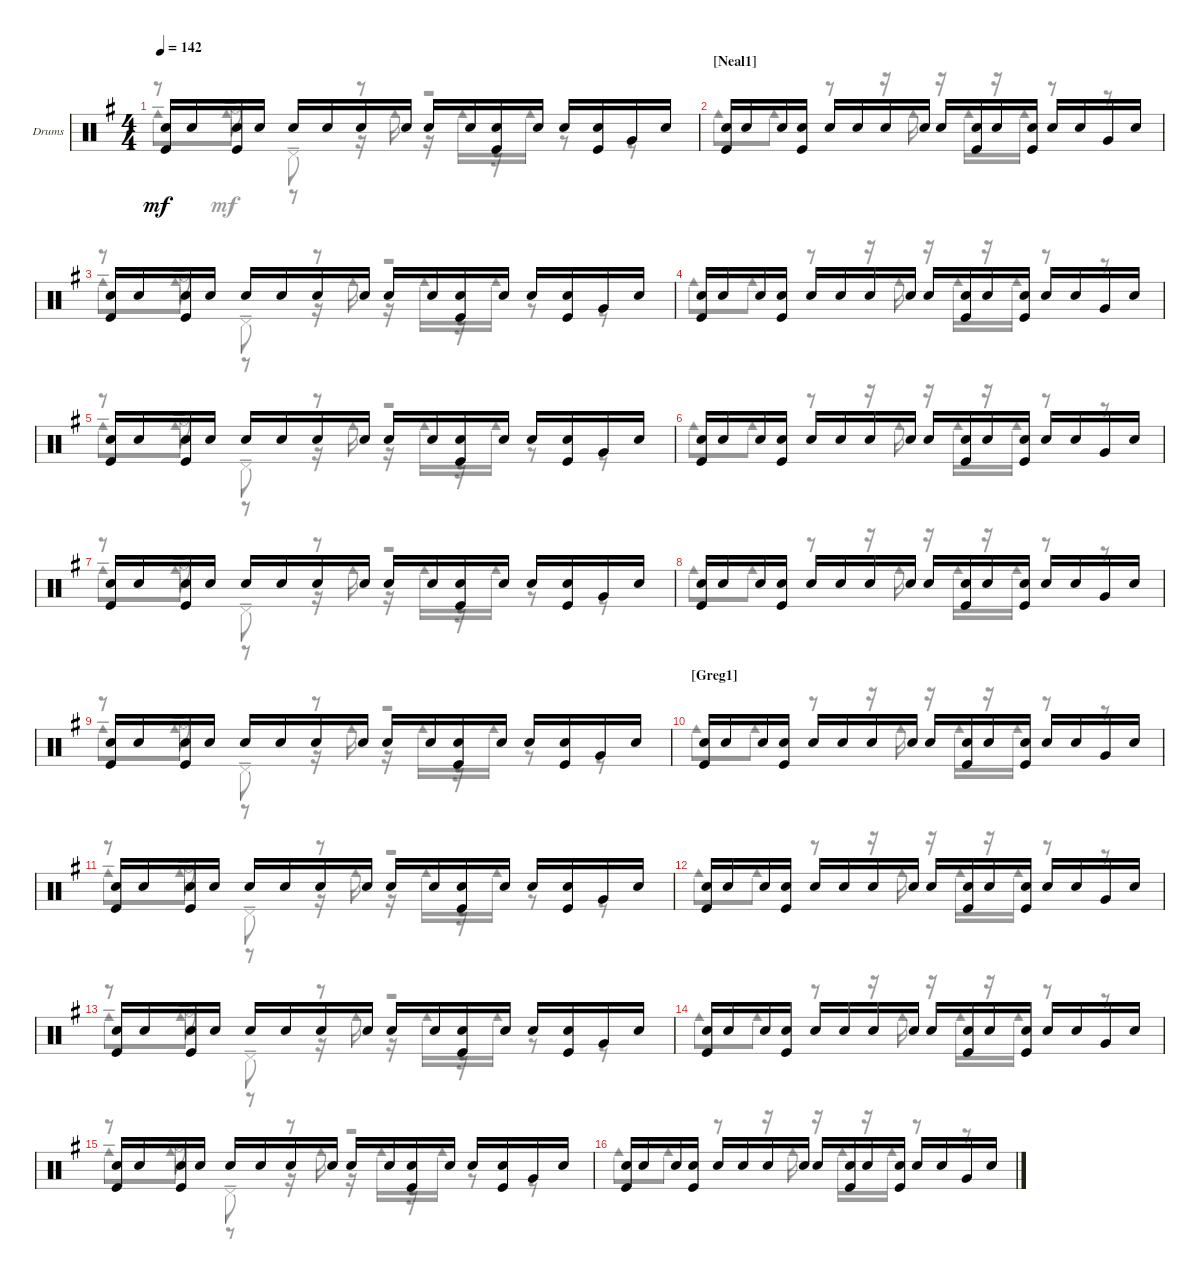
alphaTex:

\bracketExtendMode groupsimilarinstruments
\firstSystemTrackNameOrientation horizontal
\otherSystemsTrackNameOrientation horizontal
\track ("Drumkit" "Drums") {instrument percussion}
\staff {score}
\articulation defaults
\voice
\ts (4 4)
\tempo 142
\clef neutral
\ks eminor
("Kick (hit)" "Snare (hit) 2").16{dy mf} "Snare (hit) 2".16 ("Kick (hit)" "Snare (hit) 2").16 "Snare (hit) 2".16 "Snare (hit) 2".16 "Snare (hit) 2".16 "Snare (hit) 2".16 "Snare (hit) 2".16 "Snare (hit) 2".16 "Snare (hit) 2".16 ("Snare (hit) 2" "Kick (hit)").16 "Snare (hit) 2".16 "Snare (hit) 2".16 ("Snare (hit) 2" "Kick (hit)").16 "Very Low Tom (hit)".16 "Snare (hit) 2".16 |
\section ("" "[Neal1] ")
("Kick (hit)" "Snare (hit) 2").16 "Snare (hit) 2".16 "Snare (hit) 2".16 ("Snare (hit) 2" "Kick (hit)").16 "Snare (hit) 2".16 "Snare (hit) 2".16 "Snare (hit) 2".16 "Snare (hit) 2".16 "Snare (hit) 2".16 ("Kick (hit)" "Snare (hit) 2").16 "Snare (hit) 2".16 ("Kick (hit)" "Snare (hit) 2").16 "Snare (hit) 2".16 "Snare (hit) 2".16 "Very Low Tom (hit)".16 "Snare (hit) 2".16 |
("Kick (hit)" "Snare (hit) 2").16 "Snare (hit) 2".16 ("Kick (hit)" "Snare (hit) 2").16 "Snare (hit) 2".16 "Snare (hit) 2".16 "Snare (hit) 2".16 "Snare (hit) 2".16 "Snare (hit) 2".16 "Snare (hit) 2".16 "Snare (hit) 2".16 ("Snare (hit) 2" "Kick (hit)").16 "Snare (hit) 2".16 "Snare (hit) 2".16 ("Snare (hit) 2" "Kick (hit)").16 "Very Low Tom (hit)".16 "Snare (hit) 2".16 |
("Kick (hit)" "Snare (hit) 2").16 "Snare (hit) 2".16 "Snare (hit) 2".16 ("Snare (hit) 2" "Kick (hit)").16 "Snare (hit) 2".16 "Snare (hit) 2".16 "Snare (hit) 2".16 "Snare (hit) 2".16 "Snare (hit) 2".16 ("Kick (hit)" "Snare (hit) 2").16 "Snare (hit) 2".16 ("Kick (hit)" "Snare (hit) 2").16 "Snare (hit) 2".16 "Snare (hit) 2".16 "Very Low Tom (hit)".16 "Snare (hit) 2".16 |
("Kick (hit)" "Snare (hit) 2").16 "Snare (hit) 2".16 ("Kick (hit)" "Snare (hit) 2").16 "Snare (hit) 2".16 "Snare (hit) 2".16 "Snare (hit) 2".16 "Snare (hit) 2".16 "Snare (hit) 2".16 "Snare (hit) 2".16 "Snare (hit) 2".16 ("Snare (hit) 2" "Kick (hit)").16 "Snare (hit) 2".16 "Snare (hit) 2".16 ("Snare (hit) 2" "Kick (hit)").16 "Very Low Tom (hit)".16 "Snare (hit) 2".16 |
("Kick (hit)" "Snare (hit) 2").16 "Snare (hit) 2".16 "Snare (hit) 2".16 ("Snare (hit) 2" "Kick (hit)").16 "Snare (hit) 2".16 "Snare (hit) 2".16 "Snare (hit) 2".16 "Snare (hit) 2".16 "Snare (hit) 2".16 ("Kick (hit)" "Snare (hit) 2").16 "Snare (hit) 2".16 ("Kick (hit)" "Snare (hit) 2").16 "Snare (hit) 2".16 "Snare (hit) 2".16 "Very Low Tom (hit)".16 "Snare (hit) 2".16 |
("Kick (hit)" "Snare (hit) 2").16 "Snare (hit) 2".16 ("Kick (hit)" "Snare (hit) 2").16 "Snare (hit) 2".16 "Snare (hit) 2".16 "Snare (hit) 2".16 "Snare (hit) 2".16 "Snare (hit) 2".16 "Snare (hit) 2".16 "Snare (hit) 2".16 ("Snare (hit) 2" "Kick (hit)").16 "Snare (hit) 2".16 "Snare (hit) 2".16 ("Snare (hit) 2" "Kick (hit)").16 "Very Low Tom (hit)".16 "Snare (hit) 2".16 |
("Kick (hit)" "Snare (hit) 2").16 "Snare (hit) 2".16 "Snare (hit) 2".16 ("Snare (hit) 2" "Kick (hit)").16 "Snare (hit) 2".16 "Snare (hit) 2".16 "Snare (hit) 2".16 "Snare (hit) 2".16 "Snare (hit) 2".16 ("Kick (hit)" "Snare (hit) 2").16 "Snare (hit) 2".16 ("Kick (hit)" "Snare (hit) 2").16 "Snare (hit) 2".16 "Snare (hit) 2".16 "Very Low Tom (hit)".16 "Snare (hit) 2".16 |
("Kick (hit)" "Snare (hit) 2").16 "Snare (hit) 2".16 ("Kick (hit)" "Snare (hit) 2").16 "Snare (hit) 2".16 "Snare (hit) 2".16 "Snare (hit) 2".16 "Snare (hit) 2".16 "Snare (hit) 2".16 "Snare (hit) 2".16 "Snare (hit) 2".16 ("Snare (hit) 2" "Kick (hit)").16 "Snare (hit) 2".16 "Snare (hit) 2".16 ("Snare (hit) 2" "Kick (hit)").16 "Very Low Tom (hit)".16 "Snare (hit) 2".16 |
\section ("" "[Greg1] ")
("Kick (hit)" "Snare (hit) 2").16 "Snare (hit) 2".16 "Snare (hit) 2".16 ("Snare (hit) 2" "Kick (hit)").16 "Snare (hit) 2".16 "Snare (hit) 2".16 "Snare (hit) 2".16 "Snare (hit) 2".16 "Snare (hit) 2".16 ("Kick (hit)" "Snare (hit) 2").16 "Snare (hit) 2".16 ("Kick (hit)" "Snare (hit) 2").16 "Snare (hit) 2".16 "Snare (hit) 2".16 "Very Low Tom (hit)".16 "Snare (hit) 2".16 |
("Kick (hit)" "Snare (hit) 2").16 "Snare (hit) 2".16 ("Kick (hit)" "Snare (hit) 2").16 "Snare (hit) 2".16 "Snare (hit) 2".16 "Snare (hit) 2".16 "Snare (hit) 2".16 "Snare (hit) 2".16 "Snare (hit) 2".16 "Snare (hit) 2".16 ("Snare (hit) 2" "Kick (hit)").16 "Snare (hit) 2".16 "Snare (hit) 2".16 ("Snare (hit) 2" "Kick (hit)").16 "Very Low Tom (hit)".16 "Snare (hit) 2".16 |
("Kick (hit)" "Snare (hit) 2").16 "Snare (hit) 2".16 "Snare (hit) 2".16 ("Snare (hit) 2" "Kick (hit)").16 "Snare (hit) 2".16 "Snare (hit) 2".16 "Snare (hit) 2".16 "Snare (hit) 2".16 "Snare (hit) 2".16 ("Kick (hit)" "Snare (hit) 2").16 "Snare (hit) 2".16 ("Kick (hit)" "Snare (hit) 2").16 "Snare (hit) 2".16 "Snare (hit) 2".16 "Very Low Tom (hit)".16 "Snare (hit) 2".16 |
("Kick (hit)" "Snare (hit) 2").16 "Snare (hit) 2".16 ("Kick (hit)" "Snare (hit) 2").16 "Snare (hit) 2".16 "Snare (hit) 2".16 "Snare (hit) 2".16 "Snare (hit) 2".16 "Snare (hit) 2".16 "Snare (hit) 2".16 "Snare (hit) 2".16 ("Snare (hit) 2" "Kick (hit)").16 "Snare (hit) 2".16 "Snare (hit) 2".16 ("Snare (hit) 2" "Kick (hit)").16 "Very Low Tom (hit)".16 "Snare (hit) 2".16 |
("Kick (hit)" "Snare (hit) 2").16 "Snare (hit) 2".16 "Snare (hit) 2".16 ("Snare (hit) 2" "Kick (hit)").16 "Snare (hit) 2".16 "Snare (hit) 2".16 "Snare (hit) 2".16 "Snare (hit) 2".16 "Snare (hit) 2".16 ("Kick (hit)" "Snare (hit) 2").16 "Snare (hit) 2".16 ("Kick (hit)" "Snare (hit) 2").16 "Snare (hit) 2".16 "Snare (hit) 2".16 "Very Low Tom (hit)".16 "Snare (hit) 2".16 |
("Kick (hit)" "Snare (hit) 2").16 "Snare (hit) 2".16 ("Kick (hit)" "Snare (hit) 2").16 "Snare (hit) 2".16 "Snare (hit) 2".16 "Snare (hit) 2".16 "Snare (hit) 2".16 "Snare (hit) 2".16 "Snare (hit) 2".16 "Snare (hit) 2".16 ("Snare (hit) 2" "Kick (hit)").16 "Snare (hit) 2".16 "Snare (hit) 2".16 ("Snare (hit) 2" "Kick (hit)").16 "Very Low Tom (hit)".16 "Snare (hit) 2".16 |
("Kick (hit)" "Snare (hit) 2").16 "Snare (hit) 2".16 "Snare (hit) 2".16 ("Snare (hit) 2" "Kick (hit)").16 "Snare (hit) 2".16 "Snare (hit) 2".16 "Snare (hit) 2".16 "Snare (hit) 2".16 "Snare (hit) 2".16 ("Kick (hit)" "Snare (hit) 2").16 "Snare (hit) 2".16 ("Kick (hit)" "Snare (hit) 2").16 "Snare (hit) 2".16 "Snare (hit) 2".16 "Very Low Tom (hit)".16 "Snare (hit) 2".16
\voice
\clef neutral
\ottava regular
\simile none
\ks eminor
r.8{dy mf} "Hi-Hat (open)"{ten}.8 "Pedal Hi-Hat (hit)"{ten}.8 r.8 r.2 |
"Cowbell medium (hit)".8 "Cowbell medium (hit)".8 r.8 r.16 "Cowbell medium (hit)".16 r.16 "Cowbell medium (hit)".16 r.16 "Cowbell medium (hit)".16 r.8 r.8 |
r.8 "Hi-Hat (open)"{ten}.8 "Pedal Hi-Hat (hit)"{ten}.8 r.8 r.2 |
"Cowbell medium (hit)".8 "Cowbell medium (hit)".8 r.8 r.16 "Cowbell medium (hit)".16 r.16 "Cowbell medium (hit)".16 r.16 "Cowbell medium (hit)".16 r.8 r.8 |
r.8 "Hi-Hat (open)"{ten}.8 "Pedal Hi-Hat (hit)"{ten}.8 r.8 r.2 |
"Cowbell medium (hit)".8 "Cowbell medium (hit)".8 r.8 r.16 "Cowbell medium (hit)".16 r.16 "Cowbell medium (hit)".16 r.16 "Cowbell medium (hit)".16 r.8 r.8 |
r.8 "Hi-Hat (open)"{ten}.8 "Pedal Hi-Hat (hit)"{ten}.8 r.8 r.2 |
"Cowbell medium (hit)".8 "Cowbell medium (hit)".8 r.8 r.16 "Cowbell medium (hit)".16 r.16 "Cowbell medium (hit)".16 r.16 "Cowbell medium (hit)".16 r.8 r.8 |
r.8 "Hi-Hat (open)"{ten}.8 "Pedal Hi-Hat (hit)"{ten}.8 r.8 r.2 |
"Cowbell medium (hit)".8 "Cowbell medium (hit)".8 r.8 r.16 "Cowbell medium (hit)".16 r.16 "Cowbell medium (hit)".16 r.16 "Cowbell medium (hit)".16 r.8 r.8 |
r.8 "Hi-Hat (open)"{ten}.8 "Pedal Hi-Hat (hit)"{ten}.8 r.8 r.2 |
"Cowbell medium (hit)".8 "Cowbell medium (hit)".8 r.8 r.16 "Cowbell medium (hit)".16 r.16 "Cowbell medium (hit)".16 r.16 "Cowbell medium (hit)".16 r.8 r.8 |
r.8 "Hi-Hat (open)"{ten}.8 "Pedal Hi-Hat (hit)"{ten}.8 r.8 r.2 |
"Cowbell medium (hit)".8 "Cowbell medium (hit)".8 r.8 r.16 "Cowbell medium (hit)".16 r.16 "Cowbell medium (hit)".16 r.16 "Cowbell medium (hit)".16 r.8 r.8 |
r.8 "Hi-Hat (open)"{ten}.8 "Pedal Hi-Hat (hit)"{ten}.8 r.8 r.2 |
"Cowbell medium (hit)".8 "Cowbell medium (hit)".8 r.8 r.16 "Cowbell medium (hit)".16 r.16 "Cowbell medium (hit)".16 r.16 "Cowbell medium (hit)".16 r.8 r.8
\voice
\clef neutral
\ottava regular
\simile none
\ks eminor "Cowbell medium (hit)"{ten}.8{dy mf} "Cowbell medium (hit)"{ten}.8
r.8 r.16 "Cowbell medium (hit)"{ten}.16 r.16 "Cowbell medium (hit)"{ten}.16 r.16 "Cowbell medium (hit)"{ten}.16 r.8 r.8 |
|
"Cowbell medium (hit)"{ten}.8 "Cowbell medium (hit)"{ten}.8 r.8 r.16 "Cowbell medium (hit)"{ten}.16 r.16 "Cowbell medium (hit)"{ten}.16 r.16 "Cowbell medium (hit)"{ten}.16 r.8 r.8 |
|
"Cowbell medium (hit)"{ten}.8 "Cowbell medium (hit)"{ten}.8 r.8 r.16 "Cowbell medium (hit)"{ten}.16 r.16 "Cowbell medium (hit)"{ten}.16 r.16 "Cowbell medium (hit)"{ten}.16 r.8 r.8 |
|
"Cowbell medium (hit)"{ten}.8 "Cowbell medium (hit)"{ten}.8 r.8 r.16 "Cowbell medium (hit)"{ten}.16 r.16 "Cowbell medium (hit)"{ten}.16 r.16 "Cowbell medium (hit)"{ten}.16 r.8 r.8 |
|
"Cowbell medium (hit)"{ten}.8 "Cowbell medium (hit)"{ten}.8 r.8 r.16 "Cowbell medium (hit)"{ten}.16 r.16 "Cowbell medium (hit)"{ten}.16 r.16 "Cowbell medium (hit)"{ten}.16 r.8 r.8 |
|
"Cowbell medium (hit)"{ten}.8 "Cowbell medium (hit)"{ten}.8 r.8 r.16 "Cowbell medium (hit)"{ten}.16 r.16 "Cowbell medium (hit)"{ten}.16 r.16 "Cowbell medium (hit)"{ten}.16 r.8 r.8 |
|
"Cowbell medium (hit)"{ten}.8 "Cowbell medium (hit)"{ten}.8 r.8 r.16 "Cowbell medium (hit)"{ten}.16 r.16 "Cowbell medium (hit)"{ten}.16 r.16 "Cowbell medium (hit)"{ten}.16 r.8 r.8 |
|
"Cowbell medium (hit)"{ten}.8 "Cowbell medium (hit)"{ten}.8 r.8 r.16 "Cowbell medium (hit)"{ten}.16 r.16 "Cowbell medium (hit)"{ten}.16 r.16 "Cowbell medium (hit)"{ten}.16 r.8 r.8 |
